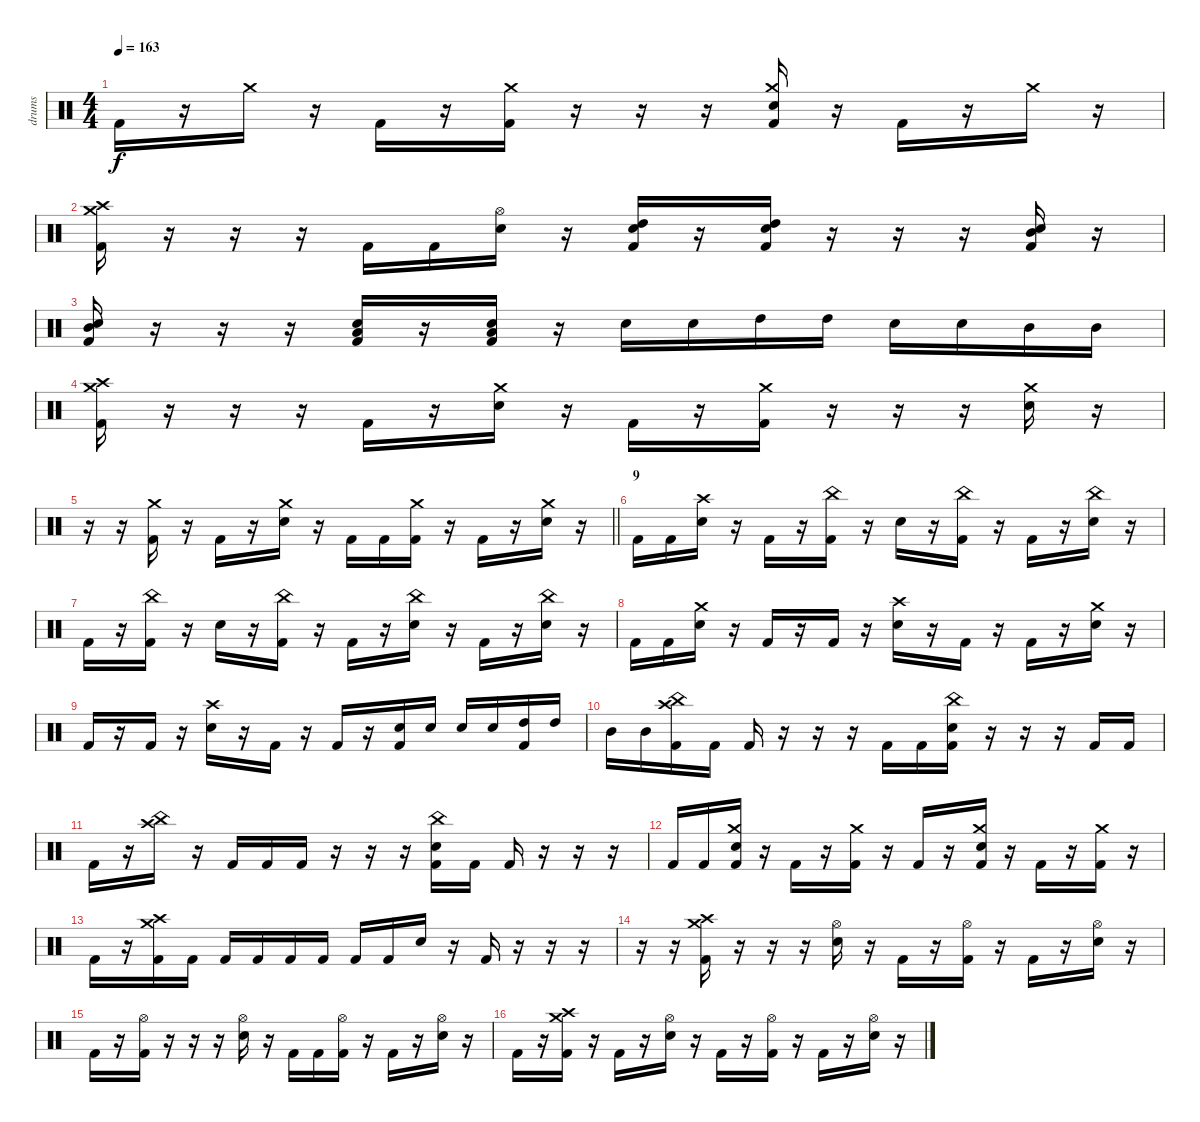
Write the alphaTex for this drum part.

\track ("drums" "drums") {instrument percussion}
\staff {score}
\articulation defaults
\ts (4 4)
\tempo 163
\clef neutral
\ks c "Kick (hit) 2".16{dy f}
r.16 "Crash medium (hit)".16 r.16 "Kick (hit) 2".16 r.16 ("Crash medium (hit)" "Kick (hit) 2").16 r.16 r.16 r.16 ("Crash medium (hit)" "Electric Snare (hit)" "Kick (hit) 2").16 r.16 "Kick (hit) 2".16 r.16 "Crash medium (hit)".16 r.16 |
("Crash medium (hit)" "Crash high (hit)" "Kick (hit) 2").16 r.16 r.16 r.16 "Kick (hit) 2".16 "Kick (hit) 2".16 ("Hi-Hat (open)" "Electric Snare (hit)").16 r.16 ("High Tom (hit)" "Electric Snare (hit)" "Kick (hit) 2").16 r.16 ("High Tom (hit)" "Electric Snare (hit)" "Kick (hit) 2").16 r.16 r.16 r.16 ("Mid Tom (hit)" "Electric Snare (hit)" "Kick (hit) 2").16 r.16 |
("Mid Tom (hit)" "Electric Snare (hit)" "Kick (hit) 2").16 r.16 r.16 r.16 ("Low Floor Tom (hit)" "Electric Snare (hit)" "Kick (hit) 2").16 r.16 ("Low Floor Tom (hit)" "Electric Snare (hit)" "Kick (hit) 2").16 r.16 "Electric Snare (hit)".16 "Electric Snare (hit)".16 "High Tom (hit)".16 "High Tom (hit)".16 "Electric Snare (hit)".16 "Electric Snare (hit)".16 "Mid Tom (hit)".16 "Mid Tom (hit)".16 |
("Crash medium (hit)" "Crash high (hit)" "Kick (hit) 2").16 r.16 r.16 r.16 "Kick (hit) 2".16 r.16 ("Crash medium (hit)" "Electric Snare (hit)").16 r.16 "Kick (hit) 2".16 r.16 ("Crash medium (hit)" "Kick (hit) 2").16 r.16 r.16 r.16 ("Crash medium (hit)" "Electric Snare (hit)").16 r.16 |
\barLineRight lightlight
r.16 r.16 ("Crash medium (hit)" "Kick (hit) 2").16 r.16 "Kick (hit) 2".16 r.16 ("Crash medium (hit)" "Electric Snare (hit)").16 r.16 "Kick (hit) 2".16 "Kick (hit) 2".16 ("Crash medium (hit)" "Kick (hit) 2").16 r.16 "Kick (hit) 2".16 r.16 ("Crash medium (hit)" "Electric Snare (hit)").16 r.16 |
\section ("" "9")
"Kick (hit) 2".16 "Kick (hit) 2".16 ("Crash high (hit)" "Electric Snare (hit)").16 r.16 "Kick (hit) 2".16 r.16 ("China (hit)" "Kick (hit) 2").16 r.16 "Electric Snare (hit)".16 r.16 ("China (hit)" "Kick (hit) 2").16 r.16 "Kick (hit) 2".16 r.16 ("China (hit)" "Electric Snare (hit)").16 r.16 |
"Kick (hit) 2".16 r.16 ("China (hit)" "Kick (hit) 2").16 r.16 "Electric Snare (hit)".16 r.16 ("China (hit)" "Kick (hit) 2").16 r.16 "Kick (hit) 2".16 r.16 ("China (hit)" "Electric Snare (hit)").16 r.16 "Kick (hit) 2".16 r.16 ("China (hit)" "Electric Snare (hit)").16 r.16 |
"Kick (hit) 2".16 "Kick (hit) 2".16 ("Crash medium (hit)" "Electric Snare (hit)").16 r.16 "Kick (hit) 2".16 r.16 "Kick (hit) 2".16 r.16 ("Crash high (hit)" "Electric Snare (hit)").16 r.16 "Kick (hit) 2".16 r.16 "Kick (hit) 2".16 r.16 ("Crash medium (hit)" "Electric Snare (hit)").16 r.16 |
"Kick (hit) 2".16 r.16 "Kick (hit) 2".16 r.16 ("Crash high (hit)" "Electric Snare (hit)").16 r.16 "Kick (hit) 2".16 r.16 "Kick (hit) 2".16 r.16 ("Electric Snare (hit)" "Kick (hit) 2").16 "Electric Snare (hit)".16 "Electric Snare (hit)".16 "Electric Snare (hit)".16 ("High Tom (hit)" "Kick (hit) 2").16 "High Tom (hit)".16 |
"Mid Tom (hit)".16 "Mid Tom (hit)".16 ("China (hit)" "Crash high (hit)" "Kick (hit) 2").16 "Kick (hit) 2".16 "Kick (hit) 2".16 r.16 r.16 r.16 "Kick (hit) 2".16 "Kick (hit) 2".16 ("China (hit)" "Electric Snare (hit)" "Kick (hit) 2").16 r.16 r.16 r.16 "Kick (hit) 2".16 "Kick (hit) 2".16 |
"Kick (hit) 2".16 r.16 ("China (hit)" "Crash high (hit)").16 r.16 "Kick (hit) 2".16 "Kick (hit) 2".16 "Kick (hit) 2".16 r.16 r.16 r.16 ("China (hit)" "Electric Snare (hit)" "Kick (hit) 2").16 "Kick (hit) 2".16 "Kick (hit) 2".16 r.16 r.16 r.16 |
"Kick (hit) 2".16 "Kick (hit) 2".16 ("Crash medium (hit)" "Electric Snare (hit)" "Kick (hit) 2").16 r.16 "Kick (hit) 2".16 r.16 ("Crash medium (hit)" "Kick (hit) 2").16 r.16 "Kick (hit) 2".16 r.16 ("Crash medium (hit)" "Electric Snare (hit)" "Kick (hit) 2").16 r.16 "Kick (hit) 2".16 r.16 ("Crash medium (hit)" "Kick (hit) 2").16 r.16 |
"Kick (hit) 2".16 r.16 ("Crash medium (hit)" "Crash high (hit)" "Kick (hit) 2").16 "Kick (hit) 2".16 "Kick (hit) 2".16 "Kick (hit) 2".16 "Kick (hit) 2".16 "Kick (hit) 2".16 "Kick (hit) 2".16 "Kick (hit) 2".16 "Electric Snare (hit)".16 r.16 "Kick (hit) 2".16 r.16 r.16 r.16 |
r.16 r.16 ("Crash high (hit)" "Crash medium (hit)" "Kick (hit) 2").16 r.16 r.16 r.16 ("Hi-Hat (open)" "Electric Snare (hit)").16 r.16 "Kick (hit) 2".16 r.16 ("Hi-Hat (open)" "Kick (hit) 2").16 r.16 "Kick (hit) 2".16 r.16 ("Hi-Hat (open)" "Electric Snare (hit)").16 r.16 |
"Kick (hit) 2".16 r.16 ("Hi-Hat (open)" "Kick (hit) 2").16 r.16 r.16 r.16 ("Hi-Hat (open)" "Electric Snare (hit)").16 r.16 "Kick (hit) 2".16 "Kick (hit) 2".16 ("Hi-Hat (open)" "Kick (hit) 2").16 r.16 "Kick (hit) 2".16 r.16 ("Hi-Hat (open)" "Electric Snare (hit)").16 r.16 |
"Kick (hit) 2".16 r.16 ("Crash medium (hit)" "Crash high (hit)" "Kick (hit) 2").16 r.16 "Kick (hit) 2".16 r.16 ("Hi-Hat (open)" "Electric Snare (hit)").16 r.16 "Kick (hit) 2".16 r.16 ("Hi-Hat (open)" "Kick (hit) 2").16 r.16 "Kick (hit) 2".16 r.16 ("Hi-Hat (open)" "Electric Snare (hit)").16 r.16
